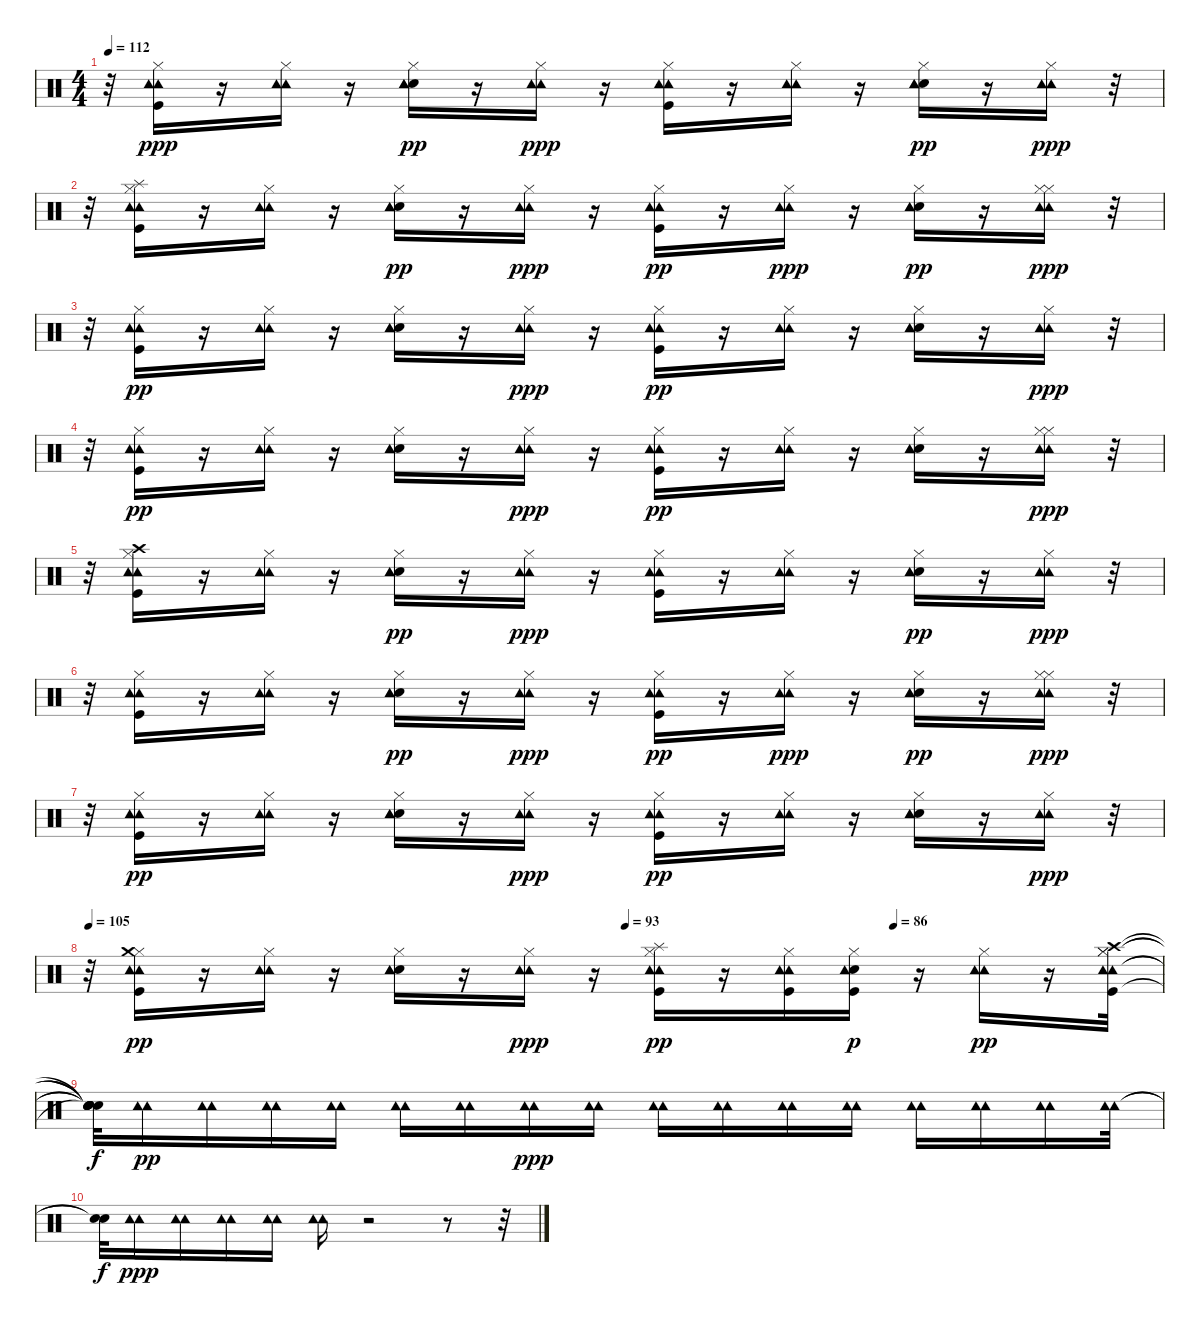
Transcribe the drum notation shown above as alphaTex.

\track "" {instrument percussion}
\staff {score}
\articulation defaults
\ts (4 4)
\tempo 112
\clef neutral
\ks c
r.32{dy ppp} ("Kick (hit)" "Hi-Hat (closed)" "Tambourine (hit)" "Tambourine (hit)").16 r.16 ("Hi-Hat (closed)" "Tambourine (hit)" "Tambourine (hit)").16 r.16 ("Electric Snare (hit)" "Hi-Hat (closed)" "Tambourine (hit)" "Tambourine (hit)").16{dy pp} r.16 ("Hi-Hat (closed)" "Tambourine (hit)" "Tambourine (hit)").16{dy ppp} r.16 ("Kick (hit)" "Hi-Hat (closed)" "Tambourine (hit)" "Tambourine (hit)").16 r.16 ("Hi-Hat (closed)" "Tambourine (hit)" "Tambourine (hit)").16 r.16 ("Electric Snare (hit)" "Hi-Hat (closed)" "Tambourine (hit)" "Tambourine (hit)").16{dy pp} r.16 ("Hi-Hat (closed)" "Tambourine (hit)" "Tambourine (hit)").16{dy ppp} r.32 |
r.32 ("Kick (hit)" "Hi-Hat (closed)" "Tambourine (hit)" "Splash (hit)" "Tambourine (hit)").16 r.16 ("Hi-Hat (closed)" "Tambourine (hit)" "Tambourine (hit)").16 r.16 ("Electric Snare (hit)" "Hi-Hat (closed)" "Tambourine (hit)" "Tambourine (hit)").16{dy pp} r.16 ("Hi-Hat (closed)" "Tambourine (hit)" "Tambourine (hit)").16{dy ppp} r.16 ("Kick (hit)" "Hi-Hat (closed)" "Tambourine (hit)" "Tambourine (hit)").16{dy pp} r.16 ("Hi-Hat (closed)" "Tambourine (hit)" "Tambourine (hit)").16{dy ppp} r.16 ("Electric Snare (hit)" "Hi-Hat (closed)" "Tambourine (hit)" "Tambourine (hit)").16{dy pp} r.16 ("Hi-Hat (closed)" "Tambourine (hit)" "Hi-Hat (closed)" "Tambourine (hit)").16{dy ppp} r.32 |
r.32 ("Kick (hit)" "Hi-Hat (closed)" "Tambourine (hit)" "Tambourine (hit)").16{dy pp} r.16 ("Hi-Hat (closed)" "Tambourine (hit)" "Tambourine (hit)").16 r.16 ("Electric Snare (hit)" "Hi-Hat (closed)" "Tambourine (hit)" "Tambourine (hit)").16 r.16 ("Hi-Hat (closed)" "Tambourine (hit)" "Tambourine (hit)").16{dy ppp} r.16 ("Kick (hit)" "Hi-Hat (closed)" "Tambourine (hit)" "Tambourine (hit)").16{dy pp} r.16 ("Hi-Hat (closed)" "Tambourine (hit)" "Tambourine (hit)").16 r.16 ("Electric Snare (hit)" "Hi-Hat (closed)" "Tambourine (hit)" "Tambourine (hit)").16 r.16 ("Hi-Hat (closed)" "Tambourine (hit)" "Tambourine (hit)").16{dy ppp} r.32 |
r.32 ("Kick (hit)" "Hi-Hat (closed)" "Tambourine (hit)" "Tambourine (hit)").16{dy pp} r.16 ("Hi-Hat (closed)" "Tambourine (hit)" "Tambourine (hit)").16 r.16 ("Electric Snare (hit)" "Hi-Hat (closed)" "Tambourine (hit)" "Tambourine (hit)").16 r.16 ("Hi-Hat (closed)" "Tambourine (hit)" "Tambourine (hit)").16{dy ppp} r.16 ("Kick (hit)" "Hi-Hat (closed)" "Tambourine (hit)" "Tambourine (hit)").16{dy pp} r.16 ("Hi-Hat (closed)" "Tambourine (hit)" "Tambourine (hit)").16 r.16 ("Electric Snare (hit)" "Hi-Hat (closed)" "Tambourine (hit)" "Tambourine (hit)").16 r.16 ("Hi-Hat (closed)" "Tambourine (hit)" "Hi-Hat (closed)" "Tambourine (hit)").16{dy ppp} r.32 |
r.32 ("Kick (hit)" "Hi-Hat (closed)" "Crash high (hit)" "Tambourine (hit)" "Tambourine (hit)").16 r.16 ("Hi-Hat (closed)" "Tambourine (hit)" "Tambourine (hit)").16 r.16 ("Electric Snare (hit)" "Hi-Hat (closed)" "Tambourine (hit)" "Tambourine (hit)").16{dy pp} r.16 ("Hi-Hat (closed)" "Tambourine (hit)" "Tambourine (hit)").16{dy ppp} r.16 ("Kick (hit)" "Hi-Hat (closed)" "Tambourine (hit)" "Tambourine (hit)").16 r.16 ("Hi-Hat (closed)" "Tambourine (hit)" "Tambourine (hit)").16 r.16 ("Electric Snare (hit)" "Hi-Hat (closed)" "Tambourine (hit)" "Tambourine (hit)").16{dy pp} r.16 ("Hi-Hat (closed)" "Tambourine (hit)" "Tambourine (hit)").16{dy ppp} r.32 |
r.32 ("Kick (hit)" "Hi-Hat (closed)" "Tambourine (hit)" "Tambourine (hit)").16 r.16 ("Hi-Hat (closed)" "Tambourine (hit)" "Tambourine (hit)").16 r.16 ("Electric Snare (hit)" "Hi-Hat (closed)" "Tambourine (hit)" "Tambourine (hit)").16{dy pp} r.16 ("Hi-Hat (closed)" "Tambourine (hit)" "Tambourine (hit)").16{dy ppp} r.16 ("Kick (hit)" "Hi-Hat (closed)" "Tambourine (hit)" "Tambourine (hit)").16{dy pp} r.16 ("Hi-Hat (closed)" "Tambourine (hit)" "Tambourine (hit)").16{dy ppp} r.16 ("Electric Snare (hit)" "Hi-Hat (closed)" "Tambourine (hit)" "Tambourine (hit)").16{dy pp} r.16 ("Hi-Hat (closed)" "Tambourine (hit)" "Hi-Hat (closed)" "Tambourine (hit)").16{dy ppp} r.32 |
r.32 ("Kick (hit)" "Hi-Hat (closed)" "Tambourine (hit)" "Tambourine (hit)").16{dy pp} r.16 ("Hi-Hat (closed)" "Tambourine (hit)" "Tambourine (hit)").16 r.16 ("Electric Snare (hit)" "Hi-Hat (closed)" "Tambourine (hit)" "Tambourine (hit)").16 r.16 ("Hi-Hat (closed)" "Tambourine (hit)" "Tambourine (hit)").16{dy ppp} r.16 ("Kick (hit)" "Hi-Hat (closed)" "Tambourine (hit)" "Tambourine (hit)").16{dy pp} r.16 ("Hi-Hat (closed)" "Tambourine (hit)" "Tambourine (hit)").16 r.16 ("Electric Snare (hit)" "Hi-Hat (closed)" "Tambourine (hit)" "Tambourine (hit)").16 r.16 ("Hi-Hat (closed)" "Tambourine (hit)" "Tambourine (hit)").16{dy ppp} r.32 |
\tempo 105
\tempo (93 0.5)
\tempo (86 0.75)
r.32 ("Kick (hit)" "Hi-Hat (closed)" "Tambourine (hit)" "Crash medium (hit)" "Tambourine (hit)").16{dy pp} r.16 ("Hi-Hat (closed)" "Tambourine (hit)" "Tambourine (hit)").16 r.16 ("Electric Snare (hit)" "Hi-Hat (closed)" "Tambourine (hit)" "Tambourine (hit)").16 r.16 ("Hi-Hat (closed)" "Tambourine (hit)" "Tambourine (hit)").16{dy ppp} r.16 ("Kick (hit)" "Hi-Hat (closed)" "Tambourine (hit)" "Splash (hit)" "Tambourine (hit)").16{dy pp} r.16 ("Hi-Hat (closed)" "Tambourine (hit)" "Kick (hit)" "Tambourine (hit)").16 ("Kick (hit)" "Electric Snare (hit)" "Hi-Hat (closed)" "Tambourine (hit)").16{dy p} r.16 ("Tambourine (hit)" "Hi-Hat (closed)" "Tambourine (hit)").16{dy pp} r.16 ("Hi-Hat (closed)" "Tambourine (hit)" "Kick (hit)" "Hi-Hat (closed)" "Crash high (hit)" "Tambourine (hit)").32 |
("Snare (hit)"{t} "Snare (hit)"{t} "Snare (hit)"{t} "Snare (hit)"{t} "Snare (hit)"{t} "Snare (hit)"{t}).32{dy f} ("Tambourine (hit)" "Tambourine (hit)").16{dy pp} ("Tambourine (hit)" "Tambourine (hit)").16 ("Tambourine (hit)" "Tambourine (hit)").16 ("Tambourine (hit)" "Tambourine (hit)").16 ("Tambourine (hit)" "Tambourine (hit)").16 ("Tambourine (hit)" "Tambourine (hit)").16 ("Tambourine (hit)" "Tambourine (hit)").16{dy ppp} ("Tambourine (hit)" "Tambourine (hit)").16 ("Tambourine (hit)" "Tambourine (hit)").16 ("Tambourine (hit)" "Tambourine (hit)").16 ("Tambourine (hit)" "Tambourine (hit)").16 ("Tambourine (hit)" "Tambourine (hit)").16 ("Tambourine (hit)" "Tambourine (hit)").16 ("Tambourine (hit)" "Tambourine (hit)").16 ("Tambourine (hit)" "Tambourine (hit)").16 ("Tambourine (hit)" "Tambourine (hit)").32 |
("Snare (hit)"{t} "Snare (hit)"{t}).32{dy f} ("Tambourine (hit)" "Tambourine (hit)").16{dy ppp} ("Tambourine (hit)" "Tambourine (hit)").16 ("Tambourine (hit)" "Tambourine (hit)").16 ("Tambourine (hit)" "Tambourine (hit)").16 ("Tambourine (hit)" "Tambourine (hit)").16 r.2 r.8 r.32
